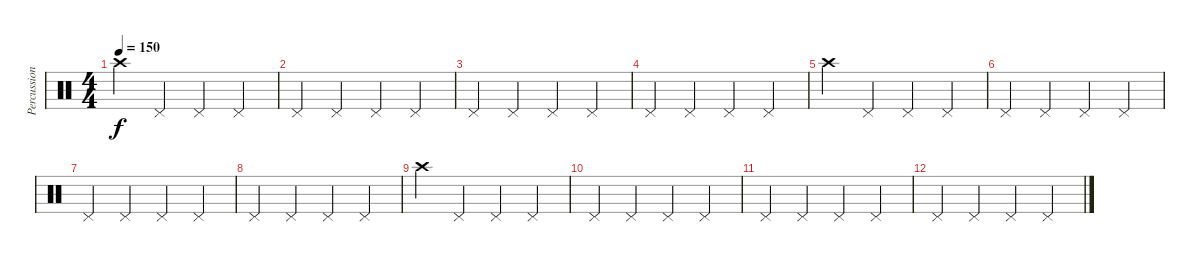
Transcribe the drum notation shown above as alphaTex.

\track ("Percussion" "Percussion") {instrument percussion}
\staff {score}
\articulation defaults
\ts (4 4)
\tempo 150
\clef neutral
\ks c "Crash high (hit)".4{dy f} "Pedal Hi-Hat (hit)".4 "Pedal Hi-Hat (hit)".4 "Pedal Hi-Hat (hit)".4
|
"Pedal Hi-Hat (hit)".4 "Pedal Hi-Hat (hit)".4 "Pedal Hi-Hat (hit)".4 "Pedal Hi-Hat (hit)".4 |
"Pedal Hi-Hat (hit)".4 "Pedal Hi-Hat (hit)".4 "Pedal Hi-Hat (hit)".4 "Pedal Hi-Hat (hit)".4 |
"Pedal Hi-Hat (hit)".4 "Pedal Hi-Hat (hit)".4 "Pedal Hi-Hat (hit)".4 "Pedal Hi-Hat (hit)".4 |
"Crash high (hit)".4 "Pedal Hi-Hat (hit)".4 "Pedal Hi-Hat (hit)".4 "Pedal Hi-Hat (hit)".4 |
"Pedal Hi-Hat (hit)".4 "Pedal Hi-Hat (hit)".4 "Pedal Hi-Hat (hit)".4 "Pedal Hi-Hat (hit)".4 |
"Pedal Hi-Hat (hit)".4 "Pedal Hi-Hat (hit)".4 "Pedal Hi-Hat (hit)".4 "Pedal Hi-Hat (hit)".4 |
"Pedal Hi-Hat (hit)".4 "Pedal Hi-Hat (hit)".4 "Pedal Hi-Hat (hit)".4 "Pedal Hi-Hat (hit)".4 |
"Crash high (hit)".4 "Pedal Hi-Hat (hit)".4 "Pedal Hi-Hat (hit)".4 "Pedal Hi-Hat (hit)".4 |
"Pedal Hi-Hat (hit)".4 "Pedal Hi-Hat (hit)".4 "Pedal Hi-Hat (hit)".4 "Pedal Hi-Hat (hit)".4 |
"Pedal Hi-Hat (hit)".4 "Pedal Hi-Hat (hit)".4 "Pedal Hi-Hat (hit)".4 "Pedal Hi-Hat (hit)".4 |
"Pedal Hi-Hat (hit)".4 "Pedal Hi-Hat (hit)".4 "Pedal Hi-Hat (hit)".4 "Pedal Hi-Hat (hit)".4
